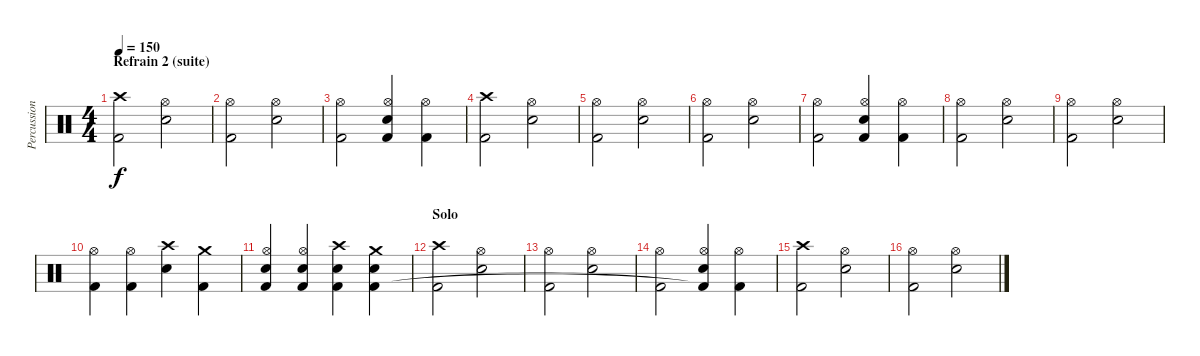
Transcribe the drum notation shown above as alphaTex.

\track ("Percussions" "Percussion") {instrument percussion}
\staff {score}
\articulation defaults
\ts (4 4)
\section ("" "Refrain 2 (suite)")
\tempo 150
\clef neutral
\ks c
("Crash high (hit)" "Kick (hit) 2").2{dy f} ("Hi-Hat (open)" "Snare (hit) 2").2 |
("Hi-Hat (open)" "Kick (hit) 2").2 ("Hi-Hat (open)" "Snare (hit) 2").2 |
("Hi-Hat (open)" "Kick (hit) 2").2 ("Hi-Hat (open)" "Snare (hit) 2" "Kick (hit) 2").4 ("Hi-Hat (open)" "Kick (hit) 2").4 |
("Crash high (hit)" "Kick (hit) 2").2 ("Hi-Hat (open)" "Snare (hit) 2").2 |
("Hi-Hat (open)" "Kick (hit) 2").2 ("Hi-Hat (open)" "Snare (hit) 2").2 |
("Hi-Hat (open)" "Kick (hit) 2").2 ("Hi-Hat (open)" "Snare (hit) 2").2 |
("Hi-Hat (open)" "Kick (hit) 2").2 ("Hi-Hat (open)" "Snare (hit) 2" "Kick (hit) 2").4 ("Hi-Hat (open)" "Kick (hit) 2").4 |
("Hi-Hat (open)" "Kick (hit) 2").2 ("Hi-Hat (open)" "Snare (hit) 2").2 |
("Hi-Hat (open)" "Kick (hit) 2").2 ("Hi-Hat (open)" "Snare (hit) 2").2 |
("Hi-Hat (open)" "Kick (hit) 2").4 ("Hi-Hat (open)" "Kick (hit) 2").4 ("Crash high (hit)" "Snare (hit) 2").4 ("Crash medium (hit)" "Kick (hit) 2").4 |
("Hi-Hat (open)" "Snare (hit) 2" "Kick (hit) 2").4 ("Hi-Hat (open)" "Snare (hit) 2" "Kick (hit) 2").4 ("Crash high (hit)" "Snare (hit) 2" "Kick (hit) 2").4 ("Crash medium (hit)" "Snare (hit) 2" "Kick (hit) 2").4 |
\section ("" "Solo")
("Crash high (hit)" "Kick (hit) 2").2 ("Hi-Hat (open)" "Snare (hit) 2").2 |
("Hi-Hat (open)" "Kick (hit) 2").2 ("Hi-Hat (open)" "Snare (hit) 2").2 |
("Hi-Hat (open)" "Kick (hit) 2").2 ("Hi-Hat (open)" "Snare (hit) 2" "Kick (hit) 2"{t}).4 ("Hi-Hat (open)" "Kick (hit) 2").4 |
("Crash high (hit)" "Kick (hit) 2").2 ("Hi-Hat (open)" "Snare (hit) 2").2 |
("Hi-Hat (open)" "Kick (hit) 2").2 ("Hi-Hat (open)" "Snare (hit) 2").2
